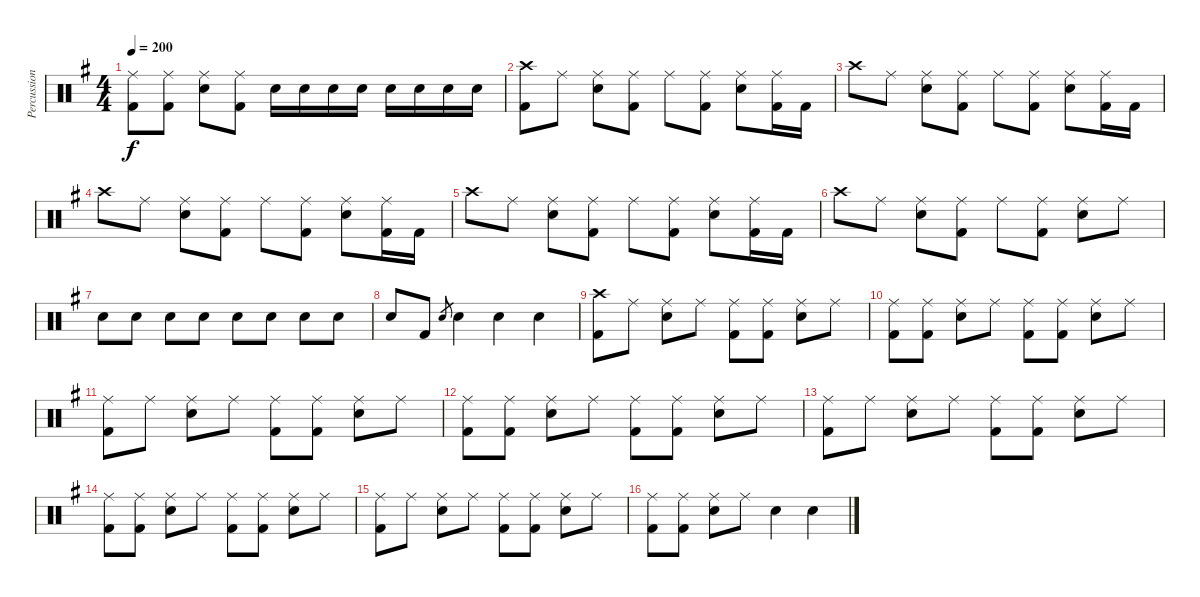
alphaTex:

\track ("Percussion" "Percussion") {instrument percussion}
\staff {score}
\articulation defaults
\ts (4 4)
\tempo 200
\clef neutral
\ks eminor
("Ride (middle)" "Kick (hit) 2").8{dy f} ("Ride (middle)" "Kick (hit) 2").8 ("Ride (middle)" "Snare (hit) 2").8 ("Ride (middle)" "Kick (hit) 2").8 "Snare (hit) 2".16 "Snare (hit) 2".16 "Snare (hit) 2".16 "Snare (hit) 2".16 "Snare (hit) 2".16 "Snare (hit) 2".16 "Snare (hit) 2".16 "Snare (hit) 2".16 |
("Crash high (hit)" "Kick (hit) 2").8 "Ride (middle)".8 ("Ride (middle)" "Snare (hit) 2").8 ("Ride (middle)" "Kick (hit) 2").8 "Ride (middle)".8 ("Ride (middle)" "Kick (hit) 2").8 ("Ride (middle)" "Snare (hit) 2").8 ("Ride (middle)" "Kick (hit) 2").16 "Kick (hit) 2".16 |
"Crash high (hit)".8 "Ride (middle)".8 ("Ride (middle)" "Snare (hit) 2").8 ("Ride (middle)" "Kick (hit) 2").8 "Ride (middle)".8 ("Ride (middle)" "Kick (hit) 2").8 ("Ride (middle)" "Snare (hit) 2").8 ("Ride (middle)" "Kick (hit) 2").16 "Kick (hit) 2".16 |
"Crash high (hit)".8 "Ride (middle)".8 ("Ride (middle)" "Snare (hit) 2").8 ("Ride (middle)" "Kick (hit) 2").8 "Ride (middle)".8 ("Ride (middle)" "Kick (hit) 2").8 ("Ride (middle)" "Snare (hit) 2").8 ("Ride (middle)" "Kick (hit) 2").16 "Kick (hit) 2".16 |
"Crash high (hit)".8 "Ride (middle)".8 ("Ride (middle)" "Snare (hit) 2").8 ("Ride (middle)" "Kick (hit) 2").8 "Ride (middle)".8 ("Ride (middle)" "Kick (hit) 2").8 ("Ride (middle)" "Snare (hit) 2").8 ("Ride (middle)" "Kick (hit) 2").16 "Kick (hit) 2".16 |
"Crash high (hit)".8 "Ride (middle)".8 ("Ride (middle)" "Snare (hit) 2").8 ("Ride (middle)" "Kick (hit) 2").8 "Ride (middle)".8 ("Ride (middle)" "Kick (hit) 2").8 ("Ride (middle)" "Snare (hit) 2").8 "Ride (middle)".8 |
"Snare (hit) 2".8 "Snare (hit) 2".8 "Snare (hit) 2".8 "Snare (hit) 2".8 "Snare (hit) 2".8 "Snare (hit) 2".8 "Snare (hit) 2".8 "Snare (hit) 2".8 |
"Snare (hit) 2".8 "Kick (hit) 2".8 "Snare (hit) 2".8{gr} "Snare (hit) 2".4 "Snare (hit) 2".4 "Snare (hit) 2".4 |
("Crash high (hit)" "Kick (hit) 2").8 "Ride (middle)".8 ("Ride (middle)" "Snare (hit) 2").8 "Ride (middle)".8 ("Ride (middle)" "Kick (hit) 2").8 ("Ride (middle)" "Kick (hit) 2").8 ("Ride (middle)" "Snare (hit) 2").8 "Ride (middle)".8 |
("Ride (middle)" "Kick (hit) 2").8 ("Ride (middle)" "Kick (hit) 2").8 ("Ride (middle)" "Snare (hit) 2").8 "Ride (middle)".8 ("Ride (middle)" "Kick (hit) 2").8 ("Ride (middle)" "Kick (hit) 2").8 ("Ride (middle)" "Snare (hit) 2").8 "Ride (middle)".8 |
("Ride (middle)" "Kick (hit) 2").8 "Ride (middle)".8 ("Ride (middle)" "Snare (hit) 2").8 "Ride (middle)".8 ("Ride (middle)" "Kick (hit) 2").8 ("Ride (middle)" "Kick (hit) 2").8 ("Ride (middle)" "Snare (hit) 2").8 "Ride (middle)".8 |
("Ride (middle)" "Kick (hit) 2").8 ("Ride (middle)" "Kick (hit) 2").8 ("Ride (middle)" "Snare (hit) 2").8 "Ride (middle)".8 ("Ride (middle)" "Kick (hit) 2").8 ("Ride (middle)" "Kick (hit) 2").8 ("Ride (middle)" "Snare (hit) 2").8 "Ride (middle)".8 |
("Ride (middle)" "Kick (hit) 2").8 "Ride (middle)".8 ("Ride (middle)" "Snare (hit) 2").8 "Ride (middle)".8 ("Ride (middle)" "Kick (hit) 2").8 ("Ride (middle)" "Kick (hit) 2").8 ("Ride (middle)" "Snare (hit) 2").8 "Ride (middle)".8 |
("Ride (middle)" "Kick (hit) 2").8 ("Ride (middle)" "Kick (hit) 2").8 ("Ride (middle)" "Snare (hit) 2").8 "Ride (middle)".8 ("Ride (middle)" "Kick (hit) 2").8 ("Ride (middle)" "Kick (hit) 2").8 ("Ride (middle)" "Snare (hit) 2").8 "Ride (middle)".8 |
("Ride (middle)" "Kick (hit) 2").8 "Ride (middle)".8 ("Ride (middle)" "Snare (hit) 2").8 "Ride (middle)".8 ("Ride (middle)" "Kick (hit) 2").8 ("Ride (middle)" "Kick (hit) 2").8 ("Ride (middle)" "Snare (hit) 2").8 "Ride (middle)".8 |
("Ride (middle)" "Kick (hit) 2").8 ("Ride (middle)" "Kick (hit) 2").8 ("Ride (middle)" "Snare (hit) 2").8 "Ride (middle)".8 "Snare (hit) 2".4 "Snare (hit) 2".4
